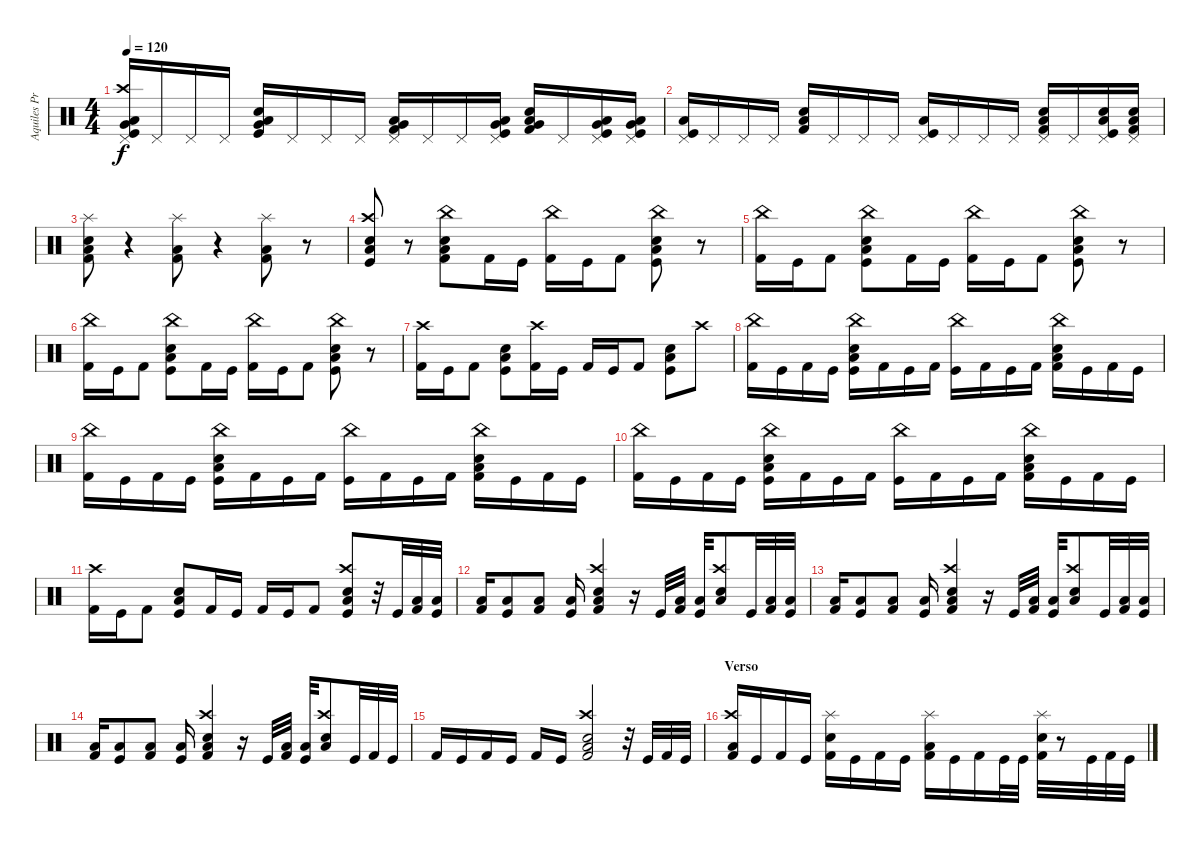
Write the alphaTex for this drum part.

\track ("Aquiles Priester" "Aquiles Pr") {instrument percussion}
\staff {score}
\articulation defaults
\ts (4 4)
\tempo 120
\clef neutral
\ks c
("Kick (hit)" "Low Floor Tom (hit)" "Crash high (hit)" "Pedal Hi-Hat (hit)" "Very Low Tom (hit)").16{dy f} "Pedal Hi-Hat (hit)".16 "Pedal Hi-Hat (hit)".16 "Pedal Hi-Hat (hit)".16 ("Kick (hit)" "Low Floor Tom (hit)" "Electric Snare (hit)" "Very Low Tom (hit)").16 "Pedal Hi-Hat (hit)".16 "Pedal Hi-Hat (hit)".16 "Pedal Hi-Hat (hit)".16 ("Kick (hit) 2" "Low Floor Tom (hit)" "Pedal Hi-Hat (hit)" "Very Low Tom (hit)").16 "Pedal Hi-Hat (hit)".16 "Pedal Hi-Hat (hit)".16 ("Kick (hit)" "Low Floor Tom (hit)" "Pedal Hi-Hat (hit)" "Very Low Tom (hit)").16 ("Kick (hit) 2" "Low Floor Tom (hit)" "Electric Snare (hit)" "Very Low Tom (hit)").16 "Pedal Hi-Hat (hit)".16 ("Kick (hit)" "Low Floor Tom (hit)" "Pedal Hi-Hat (hit)" "Very Low Tom (hit)").16 ("Kick (hit)" "Low Floor Tom (hit)" "Pedal Hi-Hat (hit)" "Very Low Tom (hit)").16 |
("Kick (hit)" "Low Floor Tom (hit)" "Pedal Hi-Hat (hit)").16 "Pedal Hi-Hat (hit)".16 "Pedal Hi-Hat (hit)".16 "Pedal Hi-Hat (hit)".16 ("Kick (hit) 2" "Low Floor Tom (hit)" "Electric Snare (hit)").16 "Pedal Hi-Hat (hit)".16 "Pedal Hi-Hat (hit)".16 "Pedal Hi-Hat (hit)".16 ("Kick (hit)" "Low Floor Tom (hit)" "Pedal Hi-Hat (hit)").16 "Pedal Hi-Hat (hit)".16 "Pedal Hi-Hat (hit)".16 "Pedal Hi-Hat (hit)".16 ("Kick (hit) 2" "Low Floor Tom (hit)" "Electric Snare (hit)" "Pedal Hi-Hat (hit)").16 "Pedal Hi-Hat (hit)".16 ("Kick (hit)" "Low Floor Tom (hit)" "Electric Snare (hit)" "Pedal Hi-Hat (hit)").16 ("Kick (hit) 2" "Low Floor Tom (hit)" "Electric Snare (hit)" "Pedal Hi-Hat (hit)").16 |
("Kick (hit) 2" "Low Floor Tom (hit)" "Electric Snare (hit)" "Splash (hit)").8 r.4 ("Kick (hit) 2" "Low Floor Tom (hit)" "Splash (hit)").8 r.4 ("Kick (hit) 2" "Low Floor Tom (hit)" "Splash (hit)").8 r.8 |
("Kick (hit)" "Low Floor Tom (hit)" "Electric Snare (hit)" "Crash high (hit)").8 r.8 ("Kick (hit) 2" "Low Floor Tom (hit)" "Electric Snare (hit)" "China (hit)").8 "Kick (hit) 2".16 "Kick (hit)".16 ("Kick (hit) 2" "China (hit)").16 "Kick (hit)".16 "Kick (hit) 2".8 ("Kick (hit)" "Low Floor Tom (hit)" "Electric Snare (hit)" "China (hit)").8 r.8 |
("Kick (hit) 2" "China (hit)").16 "Kick (hit)".16 "Kick (hit) 2".8 ("Kick (hit)" "Low Floor Tom (hit)" "Electric Snare (hit)" "China (hit)").8 "Kick (hit) 2".16 "Kick (hit)".16 ("Kick (hit) 2" "China (hit)").16 "Kick (hit)".16 "Kick (hit) 2".8 ("Kick (hit)" "Low Floor Tom (hit)" "Electric Snare (hit)" "China (hit)").8 r.8 |
("Kick (hit) 2" "China (hit)").16 "Kick (hit)".16 "Kick (hit) 2".8 ("Kick (hit)" "Low Floor Tom (hit)" "Electric Snare (hit)" "China (hit)").8 "Kick (hit) 2".16 "Kick (hit)".16 ("Kick (hit) 2" "China (hit)").16 "Kick (hit)".16 "Kick (hit) 2".8 ("Kick (hit)" "Low Floor Tom (hit)" "Electric Snare (hit)" "China (hit)").8 r.8 |
("Kick (hit) 2" "Crash high (hit)").16 "Kick (hit)".16 "Kick (hit) 2".8 ("Kick (hit)" "Low Floor Tom (hit)" "Electric Snare (hit)").8 ("Kick (hit) 2" "Crash high (hit)").16 "Kick (hit)".16 "Kick (hit) 2".16 "Kick (hit)".16 "Kick (hit) 2".8 ("Kick (hit)" "Low Floor Tom (hit)" "Electric Snare (hit)").8 "Crash high (hit)".8 |
("Kick (hit) 2" "China (hit)").16 "Kick (hit)".16 "Kick (hit) 2".16 "Kick (hit)".16 ("Kick (hit)" "Low Floor Tom (hit)" "Electric Snare (hit)" "China (hit)").16 "Kick (hit) 2".16 "Kick (hit)".16 "Kick (hit) 2".16 ("Kick (hit)" "China (hit)").16 "Kick (hit) 2".16 "Kick (hit)".16 "Kick (hit) 2".16 ("Kick (hit) 2" "Low Floor Tom (hit)" "Electric Snare (hit)" "China (hit)").16 "Kick (hit)".16 "Kick (hit) 2".16 "Kick (hit)".16 |
("Kick (hit) 2" "China (hit)").16 "Kick (hit)".16 "Kick (hit) 2".16 "Kick (hit)".16 ("Kick (hit)" "Low Floor Tom (hit)" "Electric Snare (hit)" "China (hit)").16 "Kick (hit) 2".16 "Kick (hit)".16 "Kick (hit) 2".16 ("Kick (hit)" "China (hit)").16 "Kick (hit) 2".16 "Kick (hit)".16 "Kick (hit) 2".16 ("Kick (hit) 2" "Low Floor Tom (hit)" "Electric Snare (hit)" "China (hit)").16 "Kick (hit)".16 "Kick (hit) 2".16 "Kick (hit)".16 |
("Kick (hit) 2" "China (hit)").16 "Kick (hit)".16 "Kick (hit) 2".16 "Kick (hit)".16 ("Kick (hit)" "Low Floor Tom (hit)" "Electric Snare (hit)" "China (hit)").16 "Kick (hit) 2".16 "Kick (hit)".16 "Kick (hit) 2".16 ("Kick (hit)" "China (hit)").16 "Kick (hit) 2".16 "Kick (hit)".16 "Kick (hit) 2".16 ("Kick (hit) 2" "Low Floor Tom (hit)" "Electric Snare (hit)" "China (hit)").16 "Kick (hit)".16 "Kick (hit) 2".16 "Kick (hit)".16 |
("Kick (hit) 2" "Crash high (hit)").16 "Kick (hit)".16 "Kick (hit) 2".8 ("Kick (hit)" "Low Floor Tom (hit)" "Electric Snare (hit)").8 "Kick (hit) 2".16 "Kick (hit)".16 "Kick (hit) 2".16 "Kick (hit)".16 "Kick (hit) 2".8 ("Kick (hit)" "Low Floor Tom (hit)" "Electric Snare (hit)" "Crash high (hit)").8 r.32 "Kick (hit)".32 ("Kick (hit) 2" "Low Floor Tom (hit)").32 ("Kick (hit)" "Low Floor Tom (hit)").32 |
("Kick (hit) 2" "Low Floor Tom (hit)").16 ("Kick (hit)" "Low Floor Tom (hit)").8 ("Kick (hit) 2" "Low Floor Tom (hit)").8 ("Kick (hit)" "Low Floor Tom (hit)").16 ("Kick (hit) 2" "Low Floor Tom (hit)" "Electric Snare (hit)" "Crash high (hit)").4 r.16 "Kick (hit)".32 ("Kick (hit) 2" "Low Floor Tom (hit)").32 ("Kick (hit)" "Low Floor Tom (hit)").32 ("Low Floor Tom (hit)" "Electric Snare (hit)" "Crash high (hit)").8 "Kick (hit)".32 ("Kick (hit) 2" "Low Floor Tom (hit)").32 ("Kick (hit)" "Low Floor Tom (hit)").32 |
("Kick (hit) 2" "Low Floor Tom (hit)").16 ("Kick (hit)" "Low Floor Tom (hit)").8 ("Kick (hit) 2" "Low Floor Tom (hit)").8 ("Kick (hit)" "Low Floor Tom (hit)").16 ("Kick (hit) 2" "Low Floor Tom (hit)" "Electric Snare (hit)" "Crash high (hit)").4 r.16 "Kick (hit)".32 ("Kick (hit) 2" "Low Floor Tom (hit)").32 ("Kick (hit)" "Low Floor Tom (hit)").32 ("Low Floor Tom (hit)" "Electric Snare (hit)" "Crash high (hit)").8 "Kick (hit)".32 ("Kick (hit) 2" "Low Floor Tom (hit)").32 ("Kick (hit)" "Low Floor Tom (hit)").32 |
("Kick (hit) 2" "Low Floor Tom (hit)").16 ("Kick (hit)" "Low Floor Tom (hit)").8 ("Kick (hit) 2" "Low Floor Tom (hit)").8 ("Kick (hit)" "Low Floor Tom (hit)").16 ("Kick (hit) 2" "Low Floor Tom (hit)" "Electric Snare (hit)" "Crash high (hit)").4 r.16 "Kick (hit)".32 ("Kick (hit) 2" "Low Floor Tom (hit)").32 ("Kick (hit)" "Low Floor Tom (hit)").32 ("Low Floor Tom (hit)" "Electric Snare (hit)" "Crash high (hit)").8 "Kick (hit)".32 "Kick (hit) 2".32 "Kick (hit)".32 |
"Kick (hit) 2".16 "Kick (hit)".16 "Kick (hit) 2".16 "Kick (hit)".16 "Kick (hit) 2".16 "Kick (hit)".16 ("Kick (hit) 2" "Low Floor Tom (hit)" "Electric Snare (hit)" "Crash high (hit)").2 r.32 "Kick (hit)".32 "Kick (hit) 2".32 "Kick (hit)".32 |
\section ("" "Verso")
("Kick (hit) 2" "Low Floor Tom (hit)" "Crash high (hit)").16 "Kick (hit)".16 "Kick (hit) 2".16 "Kick (hit)".16 ("Kick (hit) 2" "Electric Snare (hit)" "Splash (hit)").16 "Kick (hit)".16 "Kick (hit) 2".16 "Kick (hit)".16 ("Kick (hit) 2" "Low Floor Tom (hit)" "Splash (hit)").16 "Kick (hit)".16 "Kick (hit) 2".16 "Kick (hit)".32 "Kick (hit)".32 ("Kick (hit) 2" "Electric Snare (hit)" "Splash (hit)").32 r.8 "Kick (hit)".32 "Kick (hit) 2".32 "Kick (hit)".32
